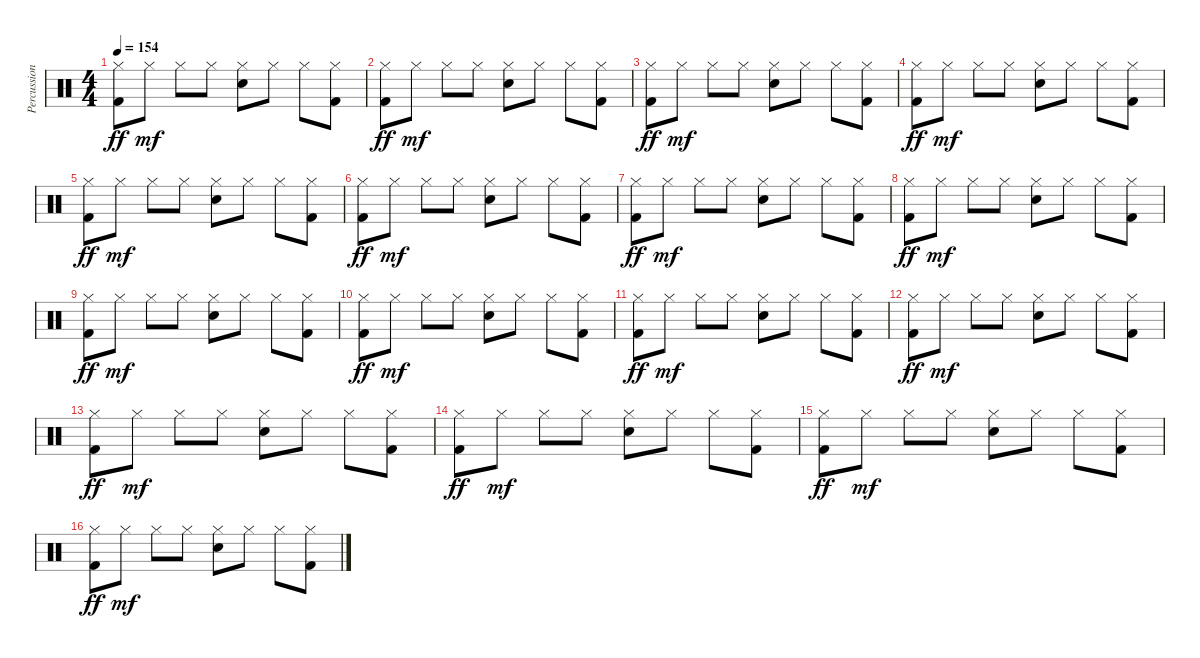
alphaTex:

\track ("Percussions" "Percussion") {instrument percussion}
\staff {score}
\articulation defaults
\ts (4 4)
\tempo 154
\clef neutral
\ks c
("Hi-Hat (closed)" "Kick (hit) 2").8{dy ff} "Hi-Hat (closed)".8{dy mf} "Hi-Hat (closed)".8 "Hi-Hat (closed)".8 ("Hi-Hat (closed)" "Electric Snare (hit)").8 "Hi-Hat (closed)".8 "Hi-Hat (closed)".8 ("Hi-Hat (closed)" "Kick (hit) 2").8 |
("Hi-Hat (closed)" "Kick (hit) 2").8{dy ff} "Hi-Hat (closed)".8{dy mf} "Hi-Hat (closed)".8 "Hi-Hat (closed)".8 ("Hi-Hat (closed)" "Electric Snare (hit)").8 "Hi-Hat (closed)".8 "Hi-Hat (closed)".8 ("Hi-Hat (closed)" "Kick (hit) 2").8 |
("Hi-Hat (closed)" "Kick (hit) 2").8{dy ff} "Hi-Hat (closed)".8{dy mf} "Hi-Hat (closed)".8 "Hi-Hat (closed)".8 ("Hi-Hat (closed)" "Electric Snare (hit)").8 "Hi-Hat (closed)".8 "Hi-Hat (closed)".8 ("Hi-Hat (closed)" "Kick (hit) 2").8 |
("Hi-Hat (closed)" "Kick (hit) 2").8{dy ff} "Hi-Hat (closed)".8{dy mf} "Hi-Hat (closed)".8 "Hi-Hat (closed)".8 ("Hi-Hat (closed)" "Electric Snare (hit)").8 "Hi-Hat (closed)".8 "Hi-Hat (closed)".8 ("Hi-Hat (closed)" "Kick (hit) 2").8 |
("Hi-Hat (closed)" "Kick (hit) 2").8{dy ff} "Hi-Hat (closed)".8{dy mf} "Hi-Hat (closed)".8 "Hi-Hat (closed)".8 ("Hi-Hat (closed)" "Electric Snare (hit)").8 "Hi-Hat (closed)".8 "Hi-Hat (closed)".8 ("Hi-Hat (closed)" "Kick (hit) 2").8 |
("Hi-Hat (closed)" "Kick (hit) 2").8{dy ff} "Hi-Hat (closed)".8{dy mf} "Hi-Hat (closed)".8 "Hi-Hat (closed)".8 ("Hi-Hat (closed)" "Electric Snare (hit)").8 "Hi-Hat (closed)".8 "Hi-Hat (closed)".8 ("Hi-Hat (closed)" "Kick (hit) 2").8 |
("Hi-Hat (closed)" "Kick (hit) 2").8{dy ff} "Hi-Hat (closed)".8{dy mf} "Hi-Hat (closed)".8 "Hi-Hat (closed)".8 ("Hi-Hat (closed)" "Electric Snare (hit)").8 "Hi-Hat (closed)".8 "Hi-Hat (closed)".8 ("Hi-Hat (closed)" "Kick (hit) 2").8 |
("Hi-Hat (closed)" "Kick (hit) 2").8{dy ff} "Hi-Hat (closed)".8{dy mf} "Hi-Hat (closed)".8 "Hi-Hat (closed)".8 ("Hi-Hat (closed)" "Electric Snare (hit)").8 "Hi-Hat (closed)".8 "Hi-Hat (closed)".8 ("Hi-Hat (closed)" "Kick (hit) 2").8 |
("Hi-Hat (closed)" "Kick (hit) 2").8{dy ff} "Hi-Hat (closed)".8{dy mf} "Hi-Hat (closed)".8 "Hi-Hat (closed)".8 ("Hi-Hat (closed)" "Electric Snare (hit)").8 "Hi-Hat (closed)".8 "Hi-Hat (closed)".8 ("Hi-Hat (closed)" "Kick (hit) 2").8 |
("Hi-Hat (closed)" "Kick (hit) 2").8{dy ff} "Hi-Hat (closed)".8{dy mf} "Hi-Hat (closed)".8 "Hi-Hat (closed)".8 ("Hi-Hat (closed)" "Electric Snare (hit)").8 "Hi-Hat (closed)".8 "Hi-Hat (closed)".8 ("Hi-Hat (closed)" "Kick (hit) 2").8 |
("Hi-Hat (closed)" "Kick (hit) 2").8{dy ff} "Hi-Hat (closed)".8{dy mf} "Hi-Hat (closed)".8 "Hi-Hat (closed)".8 ("Hi-Hat (closed)" "Electric Snare (hit)").8 "Hi-Hat (closed)".8 "Hi-Hat (closed)".8 ("Hi-Hat (closed)" "Kick (hit) 2").8 |
("Hi-Hat (closed)" "Kick (hit) 2").8{dy ff} "Hi-Hat (closed)".8{dy mf} "Hi-Hat (closed)".8 "Hi-Hat (closed)".8 ("Hi-Hat (closed)" "Electric Snare (hit)").8 "Hi-Hat (closed)".8 "Hi-Hat (closed)".8 ("Hi-Hat (closed)" "Kick (hit) 2").8 |
("Hi-Hat (closed)" "Kick (hit) 2").8{dy ff} "Hi-Hat (closed)".8{dy mf} "Hi-Hat (closed)".8 "Hi-Hat (closed)".8 ("Hi-Hat (closed)" "Electric Snare (hit)").8 "Hi-Hat (closed)".8 "Hi-Hat (closed)".8 ("Hi-Hat (closed)" "Kick (hit) 2").8 |
("Hi-Hat (closed)" "Kick (hit) 2").8{dy ff} "Hi-Hat (closed)".8{dy mf} "Hi-Hat (closed)".8 "Hi-Hat (closed)".8 ("Hi-Hat (closed)" "Electric Snare (hit)").8 "Hi-Hat (closed)".8 "Hi-Hat (closed)".8 ("Hi-Hat (closed)" "Kick (hit) 2").8 |
("Hi-Hat (closed)" "Kick (hit) 2").8{dy ff} "Hi-Hat (closed)".8{dy mf} "Hi-Hat (closed)".8 "Hi-Hat (closed)".8 ("Hi-Hat (closed)" "Electric Snare (hit)").8 "Hi-Hat (closed)".8 "Hi-Hat (closed)".8 ("Hi-Hat (closed)" "Kick (hit) 2").8 |
("Hi-Hat (closed)" "Kick (hit) 2").8{dy ff} "Hi-Hat (closed)".8{dy mf} "Hi-Hat (closed)".8 "Hi-Hat (closed)".8 ("Hi-Hat (closed)" "Electric Snare (hit)").8 "Hi-Hat (closed)".8 "Hi-Hat (closed)".8 ("Hi-Hat (closed)" "Kick (hit) 2").8
